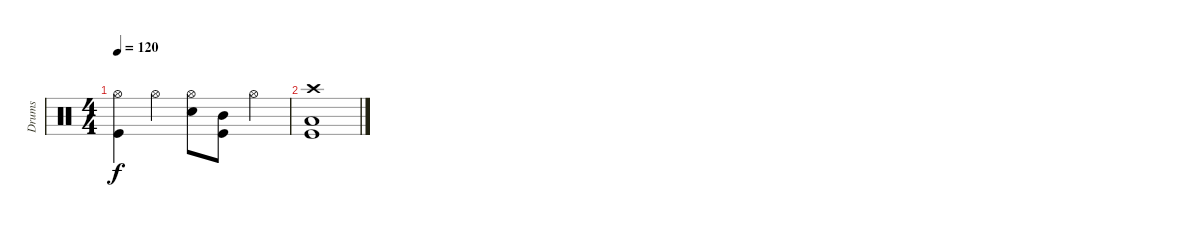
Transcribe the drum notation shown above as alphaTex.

\track ("Drums" "Drums") {instrument percussion}
\staff {score}
\articulation defaults
\ts (4 4)
\tempo 120
\clef neutral
\ks c
("Hi-Hat (open)" "Kick (hit)").4{dy f} "Hi-Hat (open)".4 ("Hi-Hat (open)" "Snare (hit) 2").8 ("Mid Tom (hit)" "Kick (hit)").8 "Hi-Hat (open)".4 |
("Crash high (hit)" "Low Tom (hit)" "Kick (hit)").1
